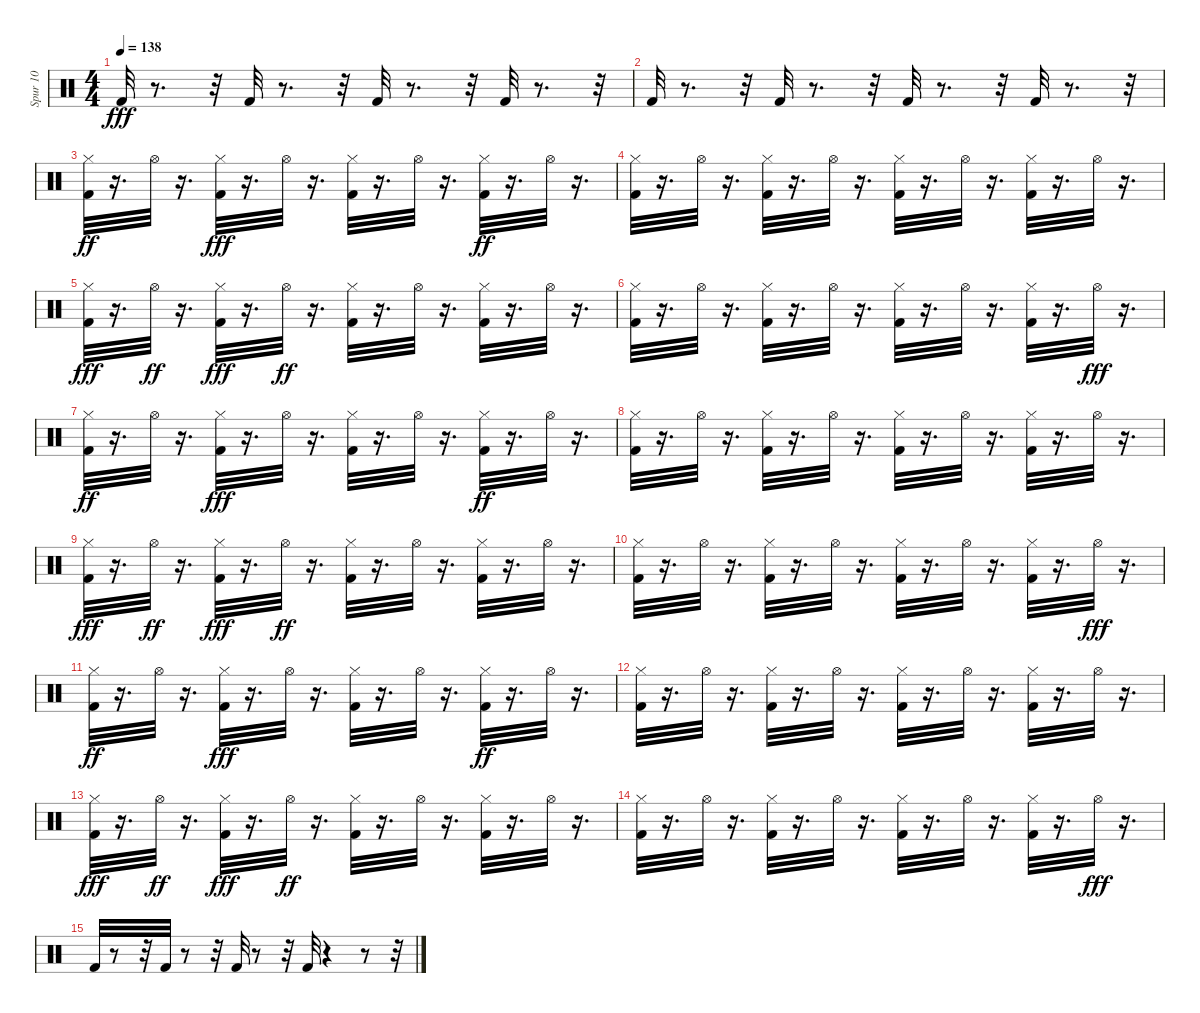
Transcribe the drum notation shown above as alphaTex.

\track ("Spur 10" "Spur 10") {instrument percussion}
\staff {score}
\articulation defaults
\ts (4 4)
\tempo 138
\clef neutral
\ks c "Kick (hit) 2".32{dy fff}
r.8{d} r.32 "Kick (hit) 2".32 r.8{d} r.32 "Kick (hit) 2".32 r.8{d} r.32 "Kick (hit) 2".32 r.8{d} r.32 |
"Kick (hit) 2".32 r.8{d} r.32 "Kick (hit) 2".32 r.8{d} r.32 "Kick (hit) 2".32 r.8{d} r.32 "Kick (hit) 2".32 r.8{d} r.32 |
("Kick (hit) 2" "Hi-Hat (closed)").32{dy ff} r.16{d} "Hi-Hat (open)".32 r.16{d} ("Kick (hit) 2" "Hi-Hat (closed)").32{dy fff} r.16{d} "Hi-Hat (open)".32 r.16{d} ("Kick (hit) 2" "Hi-Hat (closed)").32 r.16{d} "Hi-Hat (open)".32 r.16{d} ("Kick (hit) 2" "Hi-Hat (closed)").32{dy ff} r.16{d} "Hi-Hat (open)".32 r.16{d} |
("Kick (hit) 2" "Hi-Hat (closed)").32 r.16{d} "Hi-Hat (open)".32 r.16{d} ("Kick (hit) 2" "Hi-Hat (closed)").32 r.16{d} "Hi-Hat (open)".32 r.16{d} ("Kick (hit) 2" "Hi-Hat (closed)").32 r.16{d} "Hi-Hat (open)".32 r.16{d} ("Kick (hit) 2" "Hi-Hat (closed)").32 r.16{d} "Hi-Hat (open)".32 r.16{d} |
("Kick (hit) 2" "Hi-Hat (closed)").32{dy fff} r.16{d} "Hi-Hat (open)".32{dy ff} r.16{d} ("Kick (hit) 2" "Hi-Hat (closed)").32{dy fff} r.16{d} "Hi-Hat (open)".32{dy ff} r.16{d} ("Kick (hit) 2" "Hi-Hat (closed)").32 r.16{d} "Hi-Hat (open)".32 r.16{d} ("Kick (hit) 2" "Hi-Hat (closed)").32 r.16{d} "Hi-Hat (open)".32 r.16{d} |
("Kick (hit) 2" "Hi-Hat (closed)").32 r.16{d} "Hi-Hat (open)".32 r.16{d} ("Kick (hit) 2" "Hi-Hat (closed)").32 r.16{d} "Hi-Hat (open)".32 r.16{d} ("Kick (hit) 2" "Hi-Hat (closed)").32 r.16{d} "Hi-Hat (open)".32 r.16{d} ("Kick (hit) 2" "Hi-Hat (closed)").32 r.16{d} "Hi-Hat (open)".32{dy fff} r.16{d} |
("Kick (hit) 2" "Hi-Hat (closed)").32{dy ff} r.16{d} "Hi-Hat (open)".32 r.16{d} ("Kick (hit) 2" "Hi-Hat (closed)").32{dy fff} r.16{d} "Hi-Hat (open)".32 r.16{d} ("Kick (hit) 2" "Hi-Hat (closed)").32 r.16{d} "Hi-Hat (open)".32 r.16{d} ("Kick (hit) 2" "Hi-Hat (closed)").32{dy ff} r.16{d} "Hi-Hat (open)".32 r.16{d} |
("Kick (hit) 2" "Hi-Hat (closed)").32 r.16{d} "Hi-Hat (open)".32 r.16{d} ("Kick (hit) 2" "Hi-Hat (closed)").32 r.16{d} "Hi-Hat (open)".32 r.16{d} ("Kick (hit) 2" "Hi-Hat (closed)").32 r.16{d} "Hi-Hat (open)".32 r.16{d} ("Kick (hit) 2" "Hi-Hat (closed)").32 r.16{d} "Hi-Hat (open)".32 r.16{d} |
("Kick (hit) 2" "Hi-Hat (closed)").32{dy fff} r.16{d} "Hi-Hat (open)".32{dy ff} r.16{d} ("Kick (hit) 2" "Hi-Hat (closed)").32{dy fff} r.16{d} "Hi-Hat (open)".32{dy ff} r.16{d} ("Kick (hit) 2" "Hi-Hat (closed)").32 r.16{d} "Hi-Hat (open)".32 r.16{d} ("Kick (hit) 2" "Hi-Hat (closed)").32 r.16{d} "Hi-Hat (open)".32 r.16{d} |
("Kick (hit) 2" "Hi-Hat (closed)").32 r.16{d} "Hi-Hat (open)".32 r.16{d} ("Kick (hit) 2" "Hi-Hat (closed)").32 r.16{d} "Hi-Hat (open)".32 r.16{d} ("Kick (hit) 2" "Hi-Hat (closed)").32 r.16{d} "Hi-Hat (open)".32 r.16{d} ("Kick (hit) 2" "Hi-Hat (closed)").32 r.16{d} "Hi-Hat (open)".32{dy fff} r.16{d} |
("Kick (hit) 2" "Hi-Hat (closed)").32{dy ff} r.16{d} "Hi-Hat (open)".32 r.16{d} ("Kick (hit) 2" "Hi-Hat (closed)").32{dy fff} r.16{d} "Hi-Hat (open)".32 r.16{d} ("Kick (hit) 2" "Hi-Hat (closed)").32 r.16{d} "Hi-Hat (open)".32 r.16{d} ("Kick (hit) 2" "Hi-Hat (closed)").32{dy ff} r.16{d} "Hi-Hat (open)".32 r.16{d} |
("Kick (hit) 2" "Hi-Hat (closed)").32 r.16{d} "Hi-Hat (open)".32 r.16{d} ("Kick (hit) 2" "Hi-Hat (closed)").32 r.16{d} "Hi-Hat (open)".32 r.16{d} ("Kick (hit) 2" "Hi-Hat (closed)").32 r.16{d} "Hi-Hat (open)".32 r.16{d} ("Kick (hit) 2" "Hi-Hat (closed)").32 r.16{d} "Hi-Hat (open)".32 r.16{d} |
("Kick (hit) 2" "Hi-Hat (closed)").32{dy fff} r.16{d} "Hi-Hat (open)".32{dy ff} r.16{d} ("Kick (hit) 2" "Hi-Hat (closed)").32{dy fff} r.16{d} "Hi-Hat (open)".32{dy ff} r.16{d} ("Kick (hit) 2" "Hi-Hat (closed)").32 r.16{d} "Hi-Hat (open)".32 r.16{d} ("Kick (hit) 2" "Hi-Hat (closed)").32 r.16{d} "Hi-Hat (open)".32 r.16{d} |
("Kick (hit) 2" "Hi-Hat (closed)").32 r.16{d} "Hi-Hat (open)".32 r.16{d} ("Kick (hit) 2" "Hi-Hat (closed)").32 r.16{d} "Hi-Hat (open)".32 r.16{d} ("Kick (hit) 2" "Hi-Hat (closed)").32 r.16{d} "Hi-Hat (open)".32 r.16{d} ("Kick (hit) 2" "Hi-Hat (closed)").32 r.16{d} "Hi-Hat (open)".32{dy fff} r.16{d} |
"Kick (hit) 2".32 r.8 r.32 "Kick (hit) 2".32 r.8 r.32 "Kick (hit) 2".32 r.8 r.32 "Kick (hit) 2".32 r.4 r.8 r.32
